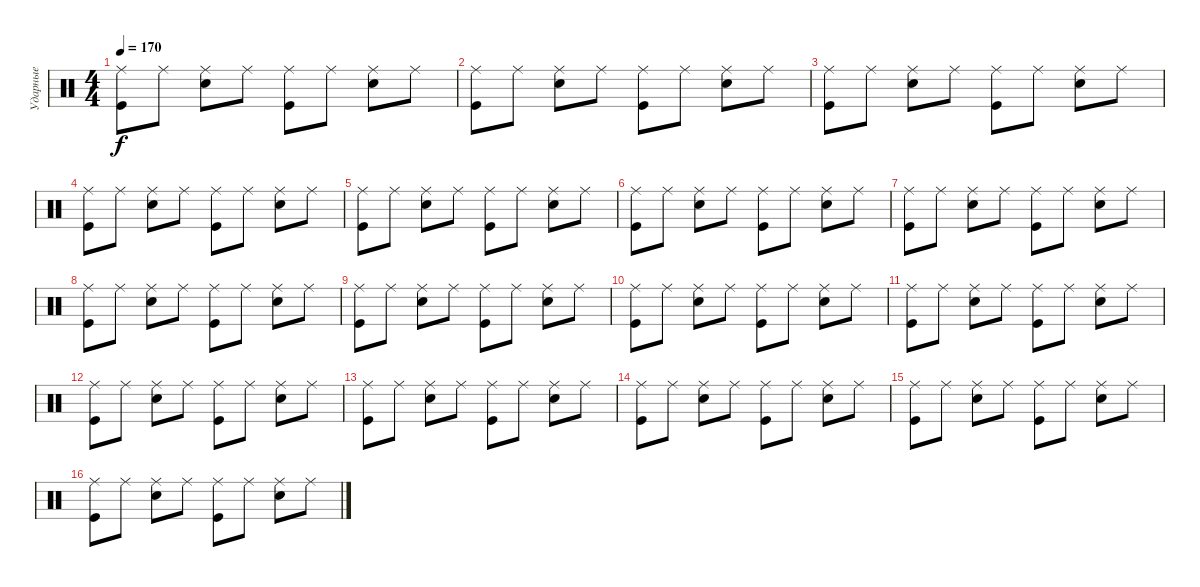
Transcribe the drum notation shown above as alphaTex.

\track ("Ударные" "Ударные") {instrument percussion}
\staff {score}
\articulation defaults
\ts (4 4)
\tempo 170
\clef neutral
\ks c
("Ride (middle)" "Kick (hit)").8{dy f} "Ride (middle)".8 ("Ride (middle)" "Electric Snare (hit)").8 "Ride (middle)".8 ("Ride (middle)" "Kick (hit)").8 "Ride (middle)".8 ("Ride (middle)" "Electric Snare (hit)").8 "Ride (middle)".8 |
("Ride (middle)" "Kick (hit)").8 "Ride (middle)".8 ("Ride (middle)" "Electric Snare (hit)").8 "Ride (middle)".8 ("Ride (middle)" "Kick (hit)").8 "Ride (middle)".8 ("Ride (middle)" "Electric Snare (hit)").8 "Ride (middle)".8 |
("Ride (middle)" "Kick (hit)").8 "Ride (middle)".8 ("Ride (middle)" "Electric Snare (hit)").8 "Ride (middle)".8 ("Ride (middle)" "Kick (hit)").8 "Ride (middle)".8 ("Ride (middle)" "Electric Snare (hit)").8 "Ride (middle)".8 |
("Ride (middle)" "Kick (hit)").8 "Ride (middle)".8 ("Ride (middle)" "Electric Snare (hit)").8 "Ride (middle)".8 ("Ride (middle)" "Kick (hit)").8 "Ride (middle)".8 ("Ride (middle)" "Electric Snare (hit)").8 "Ride (middle)".8 |
("Ride (middle)" "Kick (hit)").8 "Ride (middle)".8 ("Ride (middle)" "Electric Snare (hit)").8 "Ride (middle)".8 ("Ride (middle)" "Kick (hit)").8 "Ride (middle)".8 ("Ride (middle)" "Electric Snare (hit)").8 "Ride (middle)".8 |
("Ride (middle)" "Kick (hit)").8 "Ride (middle)".8 ("Ride (middle)" "Electric Snare (hit)").8 "Ride (middle)".8 ("Ride (middle)" "Kick (hit)").8 "Ride (middle)".8 ("Ride (middle)" "Electric Snare (hit)").8 "Ride (middle)".8 |
("Ride (middle)" "Kick (hit)").8 "Ride (middle)".8 ("Ride (middle)" "Electric Snare (hit)").8 "Ride (middle)".8 ("Ride (middle)" "Kick (hit)").8 "Ride (middle)".8 ("Ride (middle)" "Electric Snare (hit)").8 "Ride (middle)".8 |
("Ride (middle)" "Kick (hit)").8 "Ride (middle)".8 ("Ride (middle)" "Electric Snare (hit)").8 "Ride (middle)".8 ("Ride (middle)" "Kick (hit)").8 "Ride (middle)".8 ("Ride (middle)" "Electric Snare (hit)").8 "Ride (middle)".8 |
("Ride (middle)" "Kick (hit)").8 "Ride (middle)".8 ("Ride (middle)" "Electric Snare (hit)").8 "Ride (middle)".8 ("Ride (middle)" "Kick (hit)").8 "Ride (middle)".8 ("Ride (middle)" "Electric Snare (hit)").8 "Ride (middle)".8 |
("Ride (middle)" "Kick (hit)").8 "Ride (middle)".8 ("Ride (middle)" "Electric Snare (hit)").8 "Ride (middle)".8 ("Ride (middle)" "Kick (hit)").8 "Ride (middle)".8 ("Ride (middle)" "Electric Snare (hit)").8 "Ride (middle)".8 |
("Ride (middle)" "Kick (hit)").8 "Ride (middle)".8 ("Ride (middle)" "Electric Snare (hit)").8 "Ride (middle)".8 ("Ride (middle)" "Kick (hit)").8 "Ride (middle)".8 ("Ride (middle)" "Electric Snare (hit)").8 "Ride (middle)".8 |
("Ride (middle)" "Kick (hit)").8 "Ride (middle)".8 ("Ride (middle)" "Electric Snare (hit)").8 "Ride (middle)".8 ("Ride (middle)" "Kick (hit)").8 "Ride (middle)".8 ("Ride (middle)" "Electric Snare (hit)").8 "Ride (middle)".8 |
("Ride (middle)" "Kick (hit)").8 "Ride (middle)".8 ("Ride (middle)" "Electric Snare (hit)").8 "Ride (middle)".8 ("Ride (middle)" "Kick (hit)").8 "Ride (middle)".8 ("Ride (middle)" "Electric Snare (hit)").8 "Ride (middle)".8 |
("Ride (middle)" "Kick (hit)").8 "Ride (middle)".8 ("Ride (middle)" "Electric Snare (hit)").8 "Ride (middle)".8 ("Ride (middle)" "Kick (hit)").8 "Ride (middle)".8 ("Ride (middle)" "Electric Snare (hit)").8 "Ride (middle)".8 |
("Ride (middle)" "Kick (hit)").8 "Ride (middle)".8 ("Ride (middle)" "Electric Snare (hit)").8 "Ride (middle)".8 ("Ride (middle)" "Kick (hit)").8 "Ride (middle)".8 ("Ride (middle)" "Electric Snare (hit)").8 "Ride (middle)".8 |
("Ride (middle)" "Kick (hit)").8 "Ride (middle)".8 ("Ride (middle)" "Electric Snare (hit)").8 "Ride (middle)".8 ("Ride (middle)" "Kick (hit)").8 "Ride (middle)".8 ("Ride (middle)" "Electric Snare (hit)").8 "Ride (middle)".8
